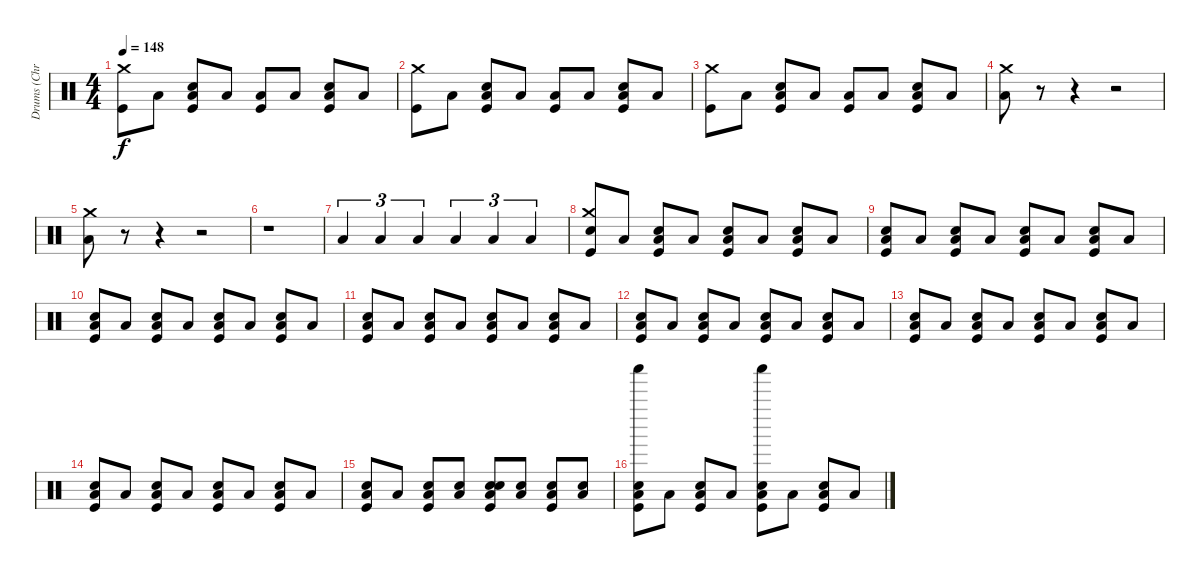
\track ("Drums (Chris Dangerous)" "Drums (Chr") {instrument percussion}
\staff {score}
\articulation defaults
\ts (4 4)
\tempo 148
\clef neutral
\ks c
("Kick (hit)" "Crash medium (hit)").8{dy f} "Low Tom (hit)".8 ("Low Tom (hit)" "Kick (hit)" "Snare (hit) 2").8 "Low Tom (hit)".8 ("Low Tom (hit)" "Kick (hit)").8 "Low Tom (hit)".8 ("Low Tom (hit)" "Kick (hit)" "Snare (hit) 2").8 "Low Tom (hit)".8 |
("Kick (hit)" "Crash medium (hit)").8 "Low Tom (hit)".8 ("Low Tom (hit)" "Kick (hit)" "Snare (hit) 2").8 "Low Tom (hit)".8 ("Low Tom (hit)" "Kick (hit)").8 "Low Tom (hit)".8 ("Low Tom (hit)" "Kick (hit)" "Snare (hit) 2").8 "Low Tom (hit)".8 |
("Kick (hit)" "Crash medium (hit)").8 "Low Tom (hit)".8 ("Low Tom (hit)" "Kick (hit)" "Snare (hit) 2").8 "Low Tom (hit)".8 ("Low Tom (hit)" "Kick (hit)").8 "Low Tom (hit)".8 ("Low Tom (hit)" "Kick (hit)" "Snare (hit) 2").8 "Low Tom (hit)".8 |
("Low Tom (hit)" "Crash medium (hit)").8 r.8 r.4 r.2 |
("Low Tom (hit)" "Crash medium (hit)").8 r.8 r.4 r.2 |
r.1 |
"Low Tom (hit)".4{tu (3 2)} "Low Tom (hit)".4{tu (3 2)} "Low Tom (hit)".4{tu (3 2)} "Low Tom (hit)".4{tu (3 2)} "Low Tom (hit)".4{tu (3 2)} "Low Tom (hit)".4{tu (3 2)} |
("Kick (hit)" "Crash medium (hit)" "Hand Clap (hit)").8 "Low Tom (hit)".8 ("Low Tom (hit)" "Kick (hit)" "Snare (hit) 2").8 "Low Tom (hit)".8 ("Low Tom (hit)" "Kick (hit)" "Hand Clap (hit)").8 "Low Tom (hit)".8 ("Low Tom (hit)" "Kick (hit)" "Snare (hit) 2").8 "Low Tom (hit)".8 |
("Low Tom (hit)" "Kick (hit)" "Hand Clap (hit)").8 "Low Tom (hit)".8 ("Low Tom (hit)" "Kick (hit)" "Snare (hit) 2").8 "Low Tom (hit)".8 ("Low Tom (hit)" "Kick (hit)" "Hand Clap (hit)").8 "Low Tom (hit)".8 ("Low Tom (hit)" "Kick (hit)" "Snare (hit) 2").8 "Low Tom (hit)".8 |
("Low Tom (hit)" "Kick (hit)" "Hand Clap (hit)").8 "Low Tom (hit)".8 ("Low Tom (hit)" "Kick (hit)" "Snare (hit) 2").8 "Low Tom (hit)".8 ("Low Tom (hit)" "Kick (hit)" "Hand Clap (hit)").8 "Low Tom (hit)".8 ("Low Tom (hit)" "Kick (hit)" "Snare (hit) 2").8 "Low Tom (hit)".8 |
("Low Tom (hit)" "Kick (hit)" "Hand Clap (hit)").8 "Low Tom (hit)".8 ("Low Tom (hit)" "Kick (hit)" "Snare (hit) 2").8 "Low Tom (hit)".8 ("Low Tom (hit)" "Kick (hit)" "Hand Clap (hit)").8 "Low Tom (hit)".8 ("Low Tom (hit)" "Kick (hit)" "Snare (hit) 2").8 "Low Tom (hit)".8 |
("Low Tom (hit)" "Kick (hit)" "Hand Clap (hit)").8 "Low Tom (hit)".8 ("Low Tom (hit)" "Kick (hit)" "Snare (hit) 2").8 "Low Tom (hit)".8 ("Low Tom (hit)" "Kick (hit)" "Hand Clap (hit)").8 "Low Tom (hit)".8 ("Low Tom (hit)" "Kick (hit)" "Snare (hit) 2").8 "Low Tom (hit)".8 |
("Low Tom (hit)" "Kick (hit)" "Hand Clap (hit)").8 "Low Tom (hit)".8 ("Low Tom (hit)" "Kick (hit)" "Snare (hit) 2").8 "Low Tom (hit)".8 ("Low Tom (hit)" "Kick (hit)" "Hand Clap (hit)").8 "Low Tom (hit)".8 ("Low Tom (hit)" "Kick (hit)" "Snare (hit) 2").8 "Low Tom (hit)".8 |
("Low Tom (hit)" "Kick (hit)" "Hand Clap (hit)").8 "Low Tom (hit)".8 ("Low Tom (hit)" "Kick (hit)" "Snare (hit) 2").8 "Low Tom (hit)".8 ("Low Tom (hit)" "Kick (hit)" "Hand Clap (hit)").8 "Low Tom (hit)".8 ("Low Tom (hit)" "Kick (hit)" "Snare (hit) 2").8 "Low Tom (hit)".8 |
("Low Tom (hit)" "Kick (hit)" "Hand Clap (hit)").8 "Low Tom (hit)".8 ("Low Tom (hit)" "Kick (hit)" "Snare (hit) 2").8 ("Low Tom (hit)" "Snare (hit) 2").8 ("Low Tom (hit)" "Kick (hit)" "Snare (hit) 2" "Hand Clap (hit)").8 ("Low Tom (hit)" "Snare (hit) 2").8 ("Low Tom (hit)" "Kick (hit)" "Snare (hit) 2").8 ("Low Tom (hit)" "Snare (hit) 2").8 |
("Low Tom (hit)" "Kick (hit)" "Shaker (hit)" "Hand Clap (hit)").8 "Low Tom (hit)".8 ("Low Tom (hit)" "Kick (hit)" "Snare (hit) 2").8 "Low Tom (hit)".8 ("Low Tom (hit)" "Kick (hit)" "Shaker (hit)" "Hand Clap (hit)").8 "Low Tom (hit)".8 ("Low Tom (hit)" "Kick (hit)" "Snare (hit) 2").8 "Low Tom (hit)".8
